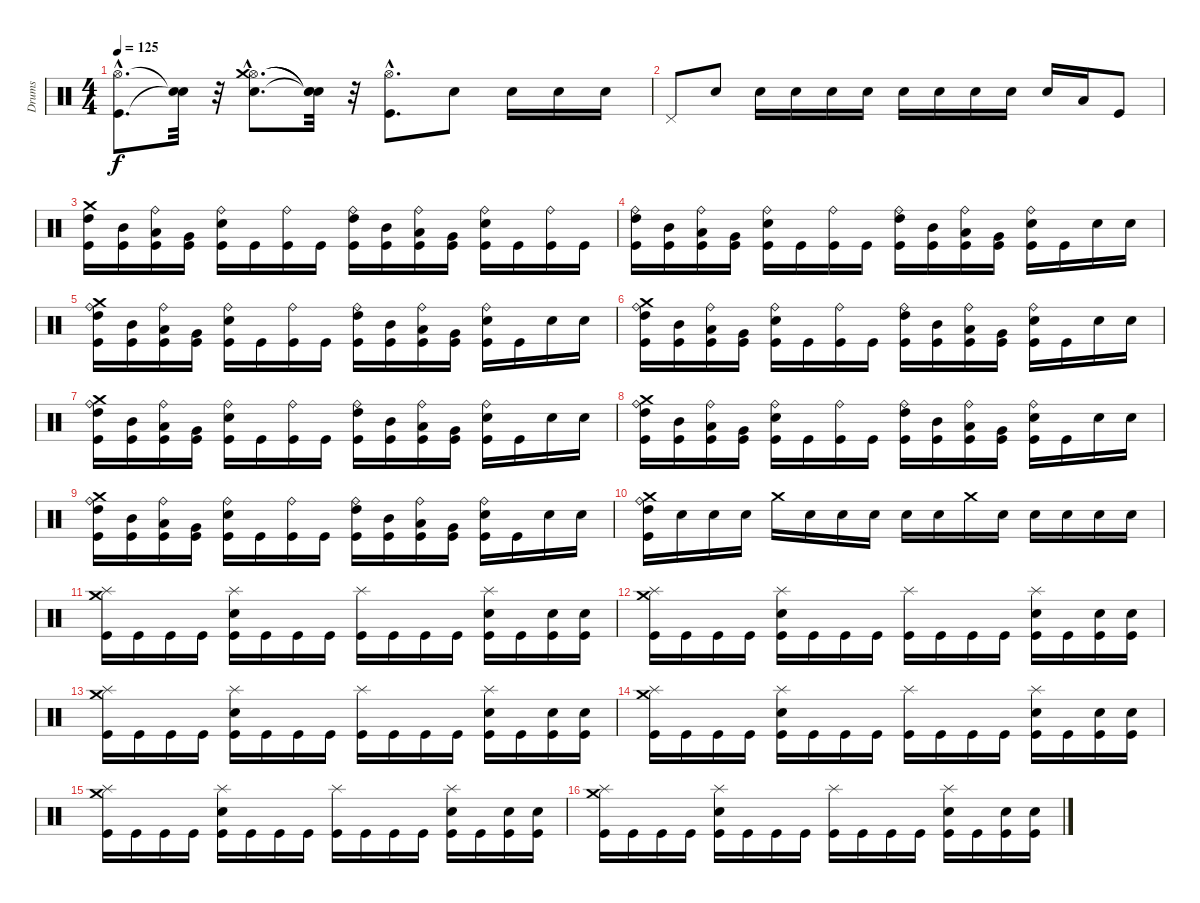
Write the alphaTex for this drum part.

\track ("Drums" "Drums") {instrument percussion}
\staff {score}
\articulation defaults
\ts (4 4)
\tempo 125
\clef neutral
\ks c
("Kick (hit)"{hac} "Hi-Hat (open)"{hac}).8{d dy f} ("Snare (hit)"{t} "Snare (hit)"{t}).32 r.32 ("Electric Snare (hit)"{hac} "Hi-Hat (open)"{hac} "Crash medium (hit)"{hac}).8{d} ("Snare (hit)"{t} "Snare (hit)"{t} "Snare (hit)"{t}).32 r.32 ("Kick (hit)"{hac} "Hi-Hat (open)"{hac}).8{d} "Electric Snare (hit)".8 "Electric Snare (hit)".16 "Electric Snare (hit)".16 "Electric Snare (hit)".16 |
"Pedal Hi-Hat (hit)".8 "Electric Snare (hit)".8 "Electric Snare (hit)".16 "Electric Snare (hit)".16 "Electric Snare (hit)".16 "Electric Snare (hit)".16 "Electric Snare (hit)".16 "Electric Snare (hit)".16 "Electric Snare (hit)".16 "Electric Snare (hit)".16 "Electric Snare (hit)".16 "Low Floor Tom (hit)".16 "Kick (hit)".8 |
("Kick (hit)" "High Tom (hit)" "Crash medium (hit)").16 ("Kick (hit)" "Mid Tom (hit)").16 ("Kick (hit)" "Low Tom (hit)" "Ride (bell)").16 ("Kick (hit)" "Very Low Tom (hit)").16 ("Kick (hit)" "Electric Snare (hit)" "Ride (bell)").16 "Kick (hit)".16 ("Kick (hit)" "Ride (bell)").16 "Kick (hit)".16 ("Kick (hit)" "High Tom (hit)" "Ride (bell)").16 ("Kick (hit)" "Mid Tom (hit)").16 ("Kick (hit)" "Low Tom (hit)" "Ride (bell)").16 ("Kick (hit)" "Very Low Tom (hit)").16 ("Kick (hit)" "Electric Snare (hit)" "Ride (bell)").16 "Kick (hit)".16 ("Kick (hit)" "Ride (bell)").16 "Kick (hit)".16 |
("Kick (hit)" "High Tom (hit)" "Ride (bell)").16 ("Kick (hit)" "Mid Tom (hit)").16 ("Kick (hit)" "Low Tom (hit)" "Ride (bell)").16 ("Kick (hit)" "Very Low Tom (hit)").16 ("Kick (hit)" "Electric Snare (hit)" "Ride (bell)").16 "Kick (hit)".16 ("Kick (hit)" "Ride (bell)").16 "Kick (hit)".16 ("Kick (hit)" "High Tom (hit)" "Ride (bell)").16 ("Kick (hit)" "Mid Tom (hit)").16 ("Kick (hit)" "Low Tom (hit)" "Ride (bell)").16 ("Kick (hit)" "Very Low Tom (hit)").16 ("Kick (hit)" "Electric Snare (hit)" "Ride (bell)").16 "Kick (hit)".16 "Electric Snare (hit)".16 "Electric Snare (hit)".16 |
("Kick (hit)" "High Tom (hit)" "Ride (bell)" "Crash medium (hit)").16 ("Kick (hit)" "Mid Tom (hit)").16 ("Kick (hit)" "Low Tom (hit)" "Ride (bell)").16 ("Kick (hit)" "Very Low Tom (hit)").16 ("Kick (hit)" "Electric Snare (hit)" "Ride (bell)").16 "Kick (hit)".16 ("Kick (hit)" "Ride (bell)").16 "Kick (hit)".16 ("Kick (hit)" "High Tom (hit)" "Ride (bell)").16 ("Kick (hit)" "Mid Tom (hit)").16 ("Kick (hit)" "Low Tom (hit)" "Ride (bell)").16 ("Kick (hit)" "Very Low Tom (hit)").16 ("Kick (hit)" "Electric Snare (hit)" "Ride (bell)").16 "Kick (hit)".16 "Electric Snare (hit)".16 "Electric Snare (hit)".16 |
("Kick (hit)" "High Tom (hit)" "Ride (bell)" "Crash medium (hit)").16 ("Kick (hit)" "Mid Tom (hit)").16 ("Kick (hit)" "Low Tom (hit)" "Ride (bell)").16 ("Kick (hit)" "Very Low Tom (hit)").16 ("Kick (hit)" "Electric Snare (hit)" "Ride (bell)").16 "Kick (hit)".16 ("Kick (hit)" "Ride (bell)").16 "Kick (hit)".16 ("Kick (hit)" "High Tom (hit)" "Ride (bell)").16 ("Kick (hit)" "Mid Tom (hit)").16 ("Kick (hit)" "Low Tom (hit)" "Ride (bell)").16 ("Kick (hit)" "Very Low Tom (hit)").16 ("Kick (hit)" "Electric Snare (hit)" "Ride (bell)").16 "Kick (hit)".16 "Electric Snare (hit)".16 "Electric Snare (hit)".16 |
("Kick (hit)" "High Tom (hit)" "Ride (bell)" "Crash medium (hit)").16 ("Kick (hit)" "Mid Tom (hit)").16 ("Kick (hit)" "Low Tom (hit)" "Ride (bell)").16 ("Kick (hit)" "Very Low Tom (hit)").16 ("Kick (hit)" "Electric Snare (hit)" "Ride (bell)").16 "Kick (hit)".16 ("Kick (hit)" "Ride (bell)").16 "Kick (hit)".16 ("Kick (hit)" "High Tom (hit)" "Ride (bell)").16 ("Kick (hit)" "Mid Tom (hit)").16 ("Kick (hit)" "Low Tom (hit)" "Ride (bell)").16 ("Kick (hit)" "Very Low Tom (hit)").16 ("Kick (hit)" "Electric Snare (hit)" "Ride (bell)").16 "Kick (hit)".16 "Electric Snare (hit)".16 "Electric Snare (hit)".16 |
("Kick (hit)" "High Tom (hit)" "Ride (bell)" "Crash medium (hit)").16 ("Kick (hit)" "Mid Tom (hit)").16 ("Kick (hit)" "Low Tom (hit)" "Ride (bell)").16 ("Kick (hit)" "Very Low Tom (hit)").16 ("Kick (hit)" "Electric Snare (hit)" "Ride (bell)").16 "Kick (hit)".16 ("Kick (hit)" "Ride (bell)").16 "Kick (hit)".16 ("Kick (hit)" "High Tom (hit)" "Ride (bell)").16 ("Kick (hit)" "Mid Tom (hit)").16 ("Kick (hit)" "Low Tom (hit)" "Ride (bell)").16 ("Kick (hit)" "Very Low Tom (hit)").16 ("Kick (hit)" "Electric Snare (hit)" "Ride (bell)").16 "Kick (hit)".16 "Electric Snare (hit)".16 "Electric Snare (hit)".16 |
("Kick (hit)" "High Tom (hit)" "Ride (bell)" "Crash medium (hit)").16 ("Kick (hit)" "Mid Tom (hit)").16 ("Kick (hit)" "Low Tom (hit)" "Ride (bell)").16 ("Kick (hit)" "Very Low Tom (hit)").16 ("Kick (hit)" "Electric Snare (hit)" "Ride (bell)").16 "Kick (hit)".16 ("Kick (hit)" "Ride (bell)").16 "Kick (hit)".16 ("Kick (hit)" "High Tom (hit)" "Ride (bell)").16 ("Kick (hit)" "Mid Tom (hit)").16 ("Kick (hit)" "Low Tom (hit)" "Ride (bell)").16 ("Kick (hit)" "Very Low Tom (hit)").16 ("Kick (hit)" "Electric Snare (hit)" "Ride (bell)").16 "Kick (hit)".16 "Electric Snare (hit)".16 "Electric Snare (hit)".16 |
("Kick (hit)" "High Tom (hit)" "Ride (bell)" "Crash medium (hit)").16 "Electric Snare (hit)".16 "Electric Snare (hit)".16 "Electric Snare (hit)".16 "Crash medium (hit)".16 "Electric Snare (hit)".16 "Electric Snare (hit)".16 "Electric Snare (hit)".16 "Electric Snare (hit)".16 "Electric Snare (hit)".16 "Crash medium (hit)".16 "Electric Snare (hit)".16 "Electric Snare (hit)".16 "Electric Snare (hit)".16 "Electric Snare (hit)".16 "Electric Snare (hit)".16 |
("Kick (hit)" "Splash (hit)" "Crash medium (hit)").16 "Kick (hit)".16 "Kick (hit)".16 "Kick (hit)".16 ("Kick (hit)" "Electric Snare (hit)" "Splash (hit)").16 "Kick (hit)".16 "Kick (hit)".16 "Kick (hit)".16 ("Kick (hit)" "Splash (hit)").16 "Kick (hit)".16 "Kick (hit)".16 "Kick (hit)".16 ("Kick (hit)" "Electric Snare (hit)" "Splash (hit)").16 "Kick (hit)".16 ("Kick (hit)" "Electric Snare (hit)").16 ("Kick (hit)" "Electric Snare (hit)").16 |
("Kick (hit)" "Splash (hit)" "Crash medium (hit)").16 "Kick (hit)".16 "Kick (hit)".16 "Kick (hit)".16 ("Kick (hit)" "Electric Snare (hit)" "Splash (hit)").16 "Kick (hit)".16 "Kick (hit)".16 "Kick (hit)".16 ("Kick (hit)" "Splash (hit)").16 "Kick (hit)".16 "Kick (hit)".16 "Kick (hit)".16 ("Kick (hit)" "Electric Snare (hit)" "Splash (hit)").16 "Kick (hit)".16 ("Kick (hit)" "Electric Snare (hit)").16 ("Kick (hit)" "Electric Snare (hit)").16 |
("Kick (hit)" "Splash (hit)" "Crash medium (hit)").16 "Kick (hit)".16 "Kick (hit)".16 "Kick (hit)".16 ("Kick (hit)" "Electric Snare (hit)" "Splash (hit)").16 "Kick (hit)".16 "Kick (hit)".16 "Kick (hit)".16 ("Kick (hit)" "Splash (hit)").16 "Kick (hit)".16 "Kick (hit)".16 "Kick (hit)".16 ("Kick (hit)" "Electric Snare (hit)" "Splash (hit)").16 "Kick (hit)".16 ("Kick (hit)" "Electric Snare (hit)").16 ("Kick (hit)" "Electric Snare (hit)").16 |
("Kick (hit)" "Splash (hit)" "Crash medium (hit)").16 "Kick (hit)".16 "Kick (hit)".16 "Kick (hit)".16 ("Kick (hit)" "Electric Snare (hit)" "Splash (hit)").16 "Kick (hit)".16 "Kick (hit)".16 "Kick (hit)".16 ("Kick (hit)" "Splash (hit)").16 "Kick (hit)".16 "Kick (hit)".16 "Kick (hit)".16 ("Kick (hit)" "Electric Snare (hit)" "Splash (hit)").16 "Kick (hit)".16 ("Kick (hit)" "Electric Snare (hit)").16 ("Kick (hit)" "Electric Snare (hit)").16 |
("Kick (hit)" "Splash (hit)" "Crash medium (hit)").16 "Kick (hit)".16 "Kick (hit)".16 "Kick (hit)".16 ("Kick (hit)" "Electric Snare (hit)" "Splash (hit)").16 "Kick (hit)".16 "Kick (hit)".16 "Kick (hit)".16 ("Kick (hit)" "Splash (hit)").16 "Kick (hit)".16 "Kick (hit)".16 "Kick (hit)".16 ("Kick (hit)" "Electric Snare (hit)" "Splash (hit)").16 "Kick (hit)".16 ("Kick (hit)" "Electric Snare (hit)").16 ("Kick (hit)" "Electric Snare (hit)").16 |
("Kick (hit)" "Splash (hit)" "Crash medium (hit)").16 "Kick (hit)".16 "Kick (hit)".16 "Kick (hit)".16 ("Kick (hit)" "Electric Snare (hit)" "Splash (hit)").16 "Kick (hit)".16 "Kick (hit)".16 "Kick (hit)".16 ("Kick (hit)" "Splash (hit)").16 "Kick (hit)".16 "Kick (hit)".16 "Kick (hit)".16 ("Kick (hit)" "Electric Snare (hit)" "Splash (hit)").16 "Kick (hit)".16 ("Kick (hit)" "Electric Snare (hit)").16 ("Kick (hit)" "Electric Snare (hit)").16
